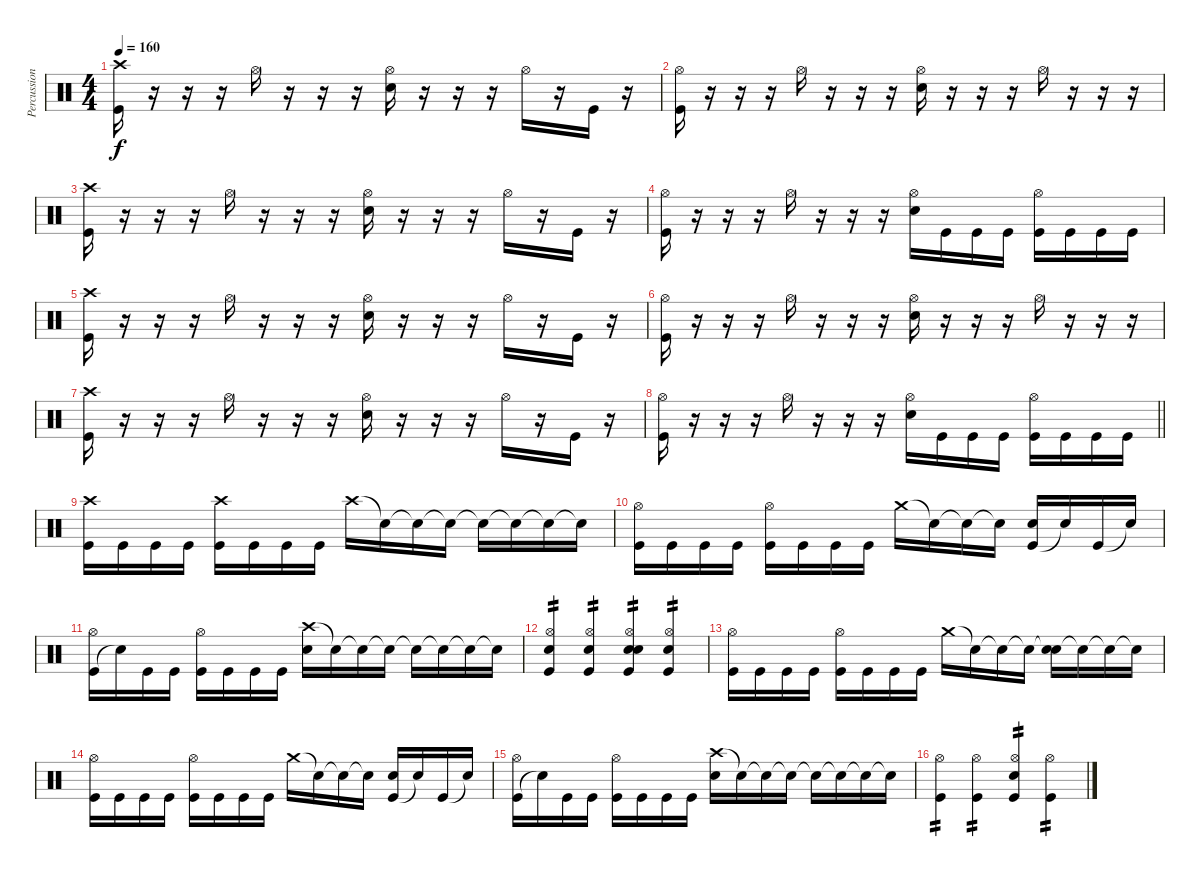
\track ("Percussion" "Percussion") {instrument percussion}
\staff {score}
\articulation defaults
\ts (4 4)
\section ("" "")
\tempo 160
\clef neutral
\ks c
("Crash high (hit)" "Kick (hit)").16{dy f} r.16 r.16 r.16 "Hi-Hat (open)".16 r.16 r.16 r.16 ("Hi-Hat (open)" "Snare (hit) 2").16 r.16 r.16 r.16 "Hi-Hat (open)".16 r.16 "Kick (hit)".16 r.16 |
("Hi-Hat (open)" "Kick (hit)").16 r.16 r.16 r.16 "Hi-Hat (open)".16 r.16 r.16 r.16 ("Hi-Hat (open)" "Snare (hit) 2").16 r.16 r.16 r.16 "Hi-Hat (open)".16 r.16 r.16 r.16 |
("Crash high (hit)" "Kick (hit)").16 r.16 r.16 r.16 "Hi-Hat (open)".16 r.16 r.16 r.16 ("Hi-Hat (open)" "Snare (hit) 2").16 r.16 r.16 r.16 "Hi-Hat (open)".16 r.16 "Kick (hit)".16 r.16 |
("Hi-Hat (open)" "Kick (hit)").16 r.16 r.16 r.16 "Hi-Hat (open)".16 r.16 r.16 r.16 ("Hi-Hat (open)" "Snare (hit) 2").16 "Kick (hit)".16 "Kick (hit)".16 "Kick (hit)".16 ("Hi-Hat (open)" "Kick (hit)").16 "Kick (hit)".16 "Kick (hit)".16 "Kick (hit)".16 |
("Crash high (hit)" "Kick (hit)").16 r.16 r.16 r.16 "Hi-Hat (open)".16 r.16 r.16 r.16 ("Hi-Hat (open)" "Snare (hit) 2").16 r.16 r.16 r.16 "Hi-Hat (open)".16 r.16 "Kick (hit)".16 r.16 |
("Hi-Hat (open)" "Kick (hit)").16 r.16 r.16 r.16 "Hi-Hat (open)".16 r.16 r.16 r.16 ("Hi-Hat (open)" "Snare (hit) 2").16 r.16 r.16 r.16 "Hi-Hat (open)".16 r.16 r.16 r.16 |
("Crash high (hit)" "Kick (hit)").16 r.16 r.16 r.16 "Hi-Hat (open)".16 r.16 r.16 r.16 ("Hi-Hat (open)" "Snare (hit) 2").16 r.16 r.16 r.16 "Hi-Hat (open)".16 r.16 "Kick (hit)".16 r.16 |
\barLineRight lightlight
("Hi-Hat (open)" "Kick (hit)").16 r.16 r.16 r.16 "Hi-Hat (open)".16 r.16 r.16 r.16 ("Hi-Hat (open)" "Snare (hit) 2").16 "Kick (hit)".16 "Kick (hit)".16 "Kick (hit)".16 ("Hi-Hat (open)" "Kick (hit)").16 "Kick (hit)".16 "Kick (hit)".16 "Kick (hit)".16 |
\section ("" "")
("Kick (hit)" "Crash high (hit)").16 "Kick (hit)".16 "Kick (hit)".16 "Kick (hit)".16 ("Kick (hit)" "Crash high (hit)").16 "Kick (hit)".16 "Kick (hit)".16 "Kick (hit)".16 "Crash high (hit)".16 "Snare (hit)"{t}.16 "Snare (hit)"{t}.16 "Snare (hit)"{t}.16 "Snare (hit)"{t}.16 "Snare (hit)"{t}.16 "Snare (hit)"{t}.16 "Snare (hit)"{t}.16 |
("Kick (hit)" "Hi-Hat (open)").16 "Kick (hit)".16 "Kick (hit)".16 "Kick (hit)".16 ("Kick (hit)" "Hi-Hat (open)").16 "Kick (hit)".16 "Kick (hit)".16 "Kick (hit)".16 "Crash medium (hit)".16 "Snare (hit)"{t}.16 "Snare (hit)"{t}.16 "Snare (hit)"{t}.16 ("Kick (hit)" "Snare (hit) 2").16 "Snare (hit)"{t}.16 "Kick (hit)".16 "Snare (hit)"{t}.16 |
("Kick (hit)" "Hi-Hat (open)").16 "Snare (hit)"{t}.16 "Kick (hit)".16 "Kick (hit)".16 ("Kick (hit)" "Hi-Hat (open)").16 "Kick (hit)".16 "Kick (hit)".16 "Kick (hit)".16 ("Crash high (hit)" "Snare (hit) 2").16 "Snare (hit)"{t}.16 "Snare (hit)"{t}.16 "Snare (hit)"{t}.16 "Snare (hit)"{t}.16 "Snare (hit)"{t}.16 "Snare (hit)"{t}.16 "Snare (hit)"{t}.16 |
("Kick (hit)" "Hi-Hat (open)" "Snare (hit) 2").4{tp 2} ("Kick (hit)" "Hi-Hat (open)" "Snare (hit) 2").4{tp 2} ("Kick (hit)" "Snare (hit) 2" "Hi-Hat (open)" "Snare (hit) 2").4{tp 2} ("Kick (hit)" "Hi-Hat (open)" "Snare (hit) 2").4{tp 2} |
("Kick (hit)" "Hi-Hat (open)").16 "Kick (hit)".16 "Kick (hit)".16 "Kick (hit)".16 ("Kick (hit)" "Hi-Hat (open)").16 "Kick (hit)".16 "Kick (hit)".16 "Kick (hit)".16 "Crash medium (hit)".16 "Snare (hit)"{t}.16 "Snare (hit)"{t}.16 "Snare (hit)"{t}.16 ("Snare (hit)"{t} "Snare (hit) 2").16 "Snare (hit)"{t}.16 "Snare (hit)"{t}.16 "Snare (hit)"{t}.16 |
("Kick (hit)" "Hi-Hat (open)").16 "Kick (hit)".16 "Kick (hit)".16 "Kick (hit)".16 ("Kick (hit)" "Hi-Hat (open)").16 "Kick (hit)".16 "Kick (hit)".16 "Kick (hit)".16 "Crash medium (hit)".16 "Snare (hit)"{t}.16 "Snare (hit)"{t}.16 "Snare (hit)"{t}.16 ("Kick (hit)" "Snare (hit) 2").16 "Snare (hit)"{t}.16 "Kick (hit)".16 "Snare (hit)"{t}.16 |
("Kick (hit)" "Hi-Hat (open)").16 "Snare (hit)"{t}.16 "Kick (hit)".16 "Kick (hit)".16 ("Kick (hit)" "Hi-Hat (open)").16 "Kick (hit)".16 "Kick (hit)".16 "Kick (hit)".16 ("Crash high (hit)" "Snare (hit) 2").16 "Snare (hit)"{t}.16 "Snare (hit)"{t}.16 "Snare (hit)"{t}.16 "Snare (hit)"{t}.16 "Snare (hit)"{t}.16 "Snare (hit)"{t}.16 "Snare (hit)"{t}.16 |
("Kick (hit)" "Hi-Hat (open)").4{tp 2} ("Kick (hit)" "Hi-Hat (open)").4{tp 2} ("Kick (hit)" "Snare (hit) 2" "Hi-Hat (open)").4{tp 2} ("Kick (hit)" "Hi-Hat (open)").4{tp 2}
